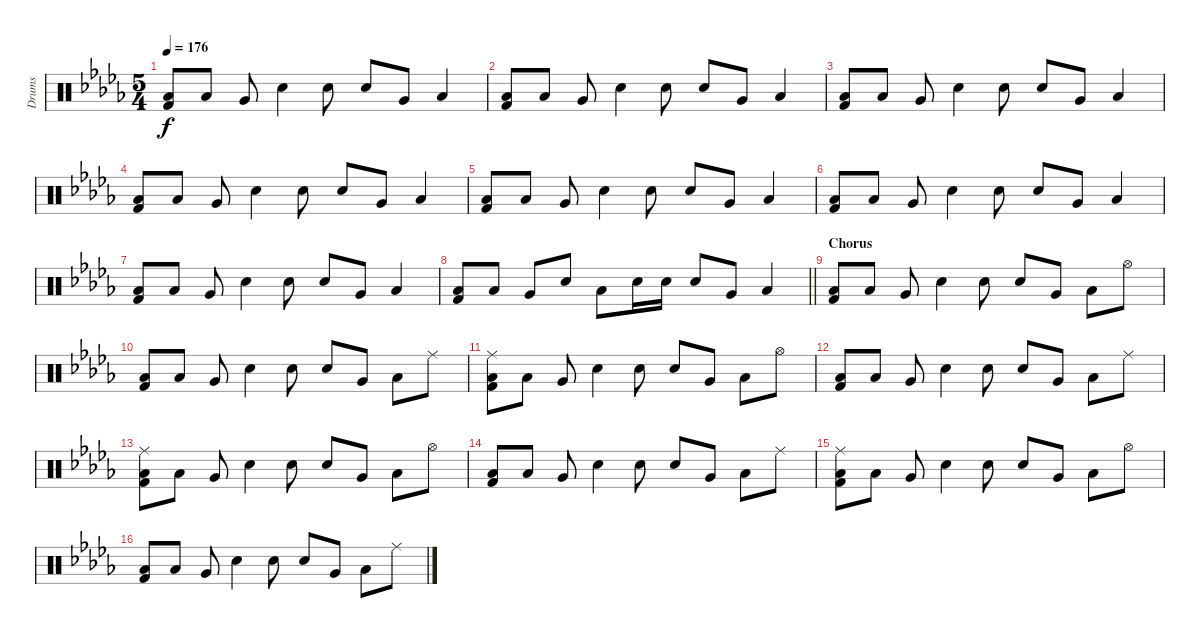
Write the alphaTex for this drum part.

\track ("Drums" "Drums") {instrument percussion}
\staff {score}
\articulation defaults
\ts (5 4)
\tempo 176
\clef neutral
\ks db
("Low Floor Tom (hit)" "Kick (hit) 2").8{dy f} "Low Floor Tom (hit)".8 "Very Low Tom (hit)".8 "Snare (hit) 2".4 "Snare (hit) 2".8 "Snare (hit) 2".8 "Very Low Tom (hit)".8 "Low Floor Tom (hit)".4 |
("Low Floor Tom (hit)" "Kick (hit) 2").8 "Low Floor Tom (hit)".8 "Very Low Tom (hit)".8 "Snare (hit) 2".4 "Snare (hit) 2".8 "Snare (hit) 2".8 "Very Low Tom (hit)".8 "Low Floor Tom (hit)".4 |
("Low Floor Tom (hit)" "Kick (hit) 2").8 "Low Floor Tom (hit)".8 "Very Low Tom (hit)".8 "Snare (hit) 2".4 "Snare (hit) 2".8 "Snare (hit) 2".8 "Very Low Tom (hit)".8 "Low Floor Tom (hit)".4 |
("Low Floor Tom (hit)" "Kick (hit) 2").8 "Low Floor Tom (hit)".8 "Very Low Tom (hit)".8 "Snare (hit) 2".4 "Snare (hit) 2".8 "Snare (hit) 2".8 "Very Low Tom (hit)".8 "Low Floor Tom (hit)".4 |
("Low Floor Tom (hit)" "Kick (hit) 2").8 "Low Floor Tom (hit)".8 "Very Low Tom (hit)".8 "Snare (hit) 2".4 "Snare (hit) 2".8 "Snare (hit) 2".8 "Very Low Tom (hit)".8 "Low Floor Tom (hit)".4 |
("Low Floor Tom (hit)" "Kick (hit) 2").8 "Low Floor Tom (hit)".8 "Very Low Tom (hit)".8 "Snare (hit) 2".4 "Snare (hit) 2".8 "Snare (hit) 2".8 "Very Low Tom (hit)".8 "Low Floor Tom (hit)".4 |
("Low Floor Tom (hit)" "Kick (hit) 2").8 "Low Floor Tom (hit)".8 "Very Low Tom (hit)".8 "Snare (hit) 2".4 "Snare (hit) 2".8 "Snare (hit) 2".8 "Very Low Tom (hit)".8 "Low Floor Tom (hit)".4 |
\barLineRight lightlight
("Low Floor Tom (hit)" "Kick (hit) 2").8 "Low Floor Tom (hit)".8 "Very Low Tom (hit)".8 "Snare (hit) 2".8 "Low Floor Tom (hit)".8 "Snare (hit) 2".16 "Snare (hit) 2".16 "Snare (hit) 2".8 "Very Low Tom (hit)".8 "Low Floor Tom (hit)".4 |
\section ("" "Chorus")
("Low Floor Tom (hit)" "Kick (hit) 2").8 "Low Floor Tom (hit)".8 "Very Low Tom (hit)".8 "Snare (hit) 2".4 "Snare (hit) 2".8 "Snare (hit) 2".8 "Very Low Tom (hit)".8 "Low Floor Tom (hit)".8 "Hi-Hat (open)".8 |
("Low Floor Tom (hit)" "Kick (hit) 2").8 "Low Floor Tom (hit)".8 "Very Low Tom (hit)".8 "Snare (hit) 2".4 "Snare (hit) 2".8 "Snare (hit) 2".8 "Very Low Tom (hit)".8 "Low Floor Tom (hit)".8 "Ride (middle)".8 |
("Ride (middle)" "Low Floor Tom (hit)" "Kick (hit) 2").8 "Low Floor Tom (hit)".8 "Very Low Tom (hit)".8 "Snare (hit) 2".4 "Snare (hit) 2".8 "Snare (hit) 2".8 "Very Low Tom (hit)".8 "Low Floor Tom (hit)".8 "Hi-Hat (open)".8 |
("Low Floor Tom (hit)" "Kick (hit) 2").8 "Low Floor Tom (hit)".8 "Very Low Tom (hit)".8 "Snare (hit) 2".4 "Snare (hit) 2".8 "Snare (hit) 2".8 "Very Low Tom (hit)".8 "Low Floor Tom (hit)".8 "Ride (middle)".8 |
("Ride (middle)" "Low Floor Tom (hit)" "Kick (hit) 2").8 "Low Floor Tom (hit)".8 "Very Low Tom (hit)".8 "Snare (hit) 2".4 "Snare (hit) 2".8 "Snare (hit) 2".8 "Very Low Tom (hit)".8 "Low Floor Tom (hit)".8 "Hi-Hat (open)".8 |
("Low Floor Tom (hit)" "Kick (hit) 2").8 "Low Floor Tom (hit)".8 "Very Low Tom (hit)".8 "Snare (hit) 2".4 "Snare (hit) 2".8 "Snare (hit) 2".8 "Very Low Tom (hit)".8 "Low Floor Tom (hit)".8 "Ride (middle)".8 |
("Ride (middle)" "Low Floor Tom (hit)" "Kick (hit) 2").8 "Low Floor Tom (hit)".8 "Very Low Tom (hit)".8 "Snare (hit) 2".4 "Snare (hit) 2".8 "Snare (hit) 2".8 "Very Low Tom (hit)".8 "Low Floor Tom (hit)".8 "Hi-Hat (open)".8 |
("Low Floor Tom (hit)" "Kick (hit) 2").8 "Low Floor Tom (hit)".8 "Very Low Tom (hit)".8 "Snare (hit) 2".4 "Snare (hit) 2".8 "Snare (hit) 2".8 "Very Low Tom (hit)".8 "Low Floor Tom (hit)".8 "Ride (middle)".8
